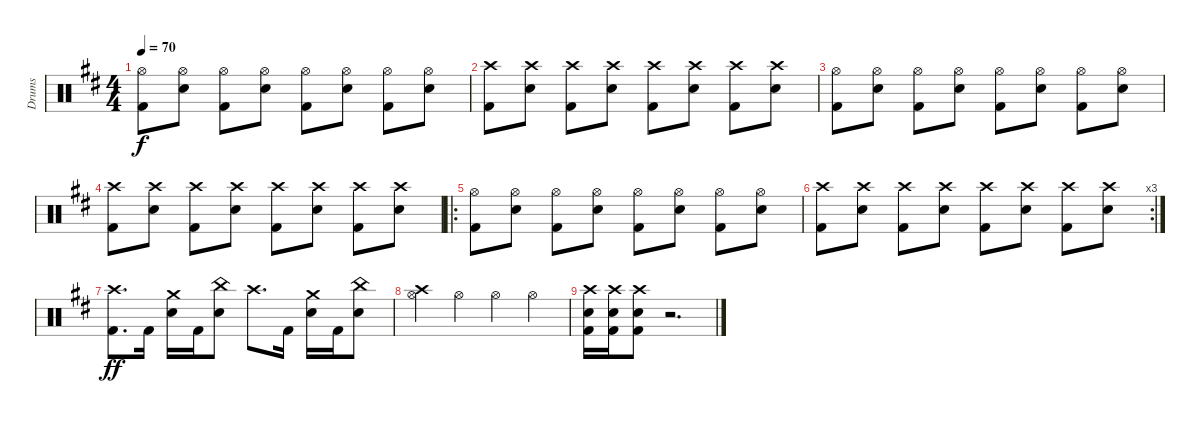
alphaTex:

\track ("Drums" "Drums") {instrument percussion}
\staff {score}
\articulation defaults
\ts (4 4)
\tempo 70
\clef neutral
\ks bminor
("Hi-Hat (open)" "Kick (hit) 2").8{dy f} ("Hi-Hat (open)" "Electric Snare (hit)").8 ("Hi-Hat (open)" "Kick (hit) 2").8 ("Hi-Hat (open)" "Electric Snare (hit)").8 ("Hi-Hat (open)" "Kick (hit) 2").8 ("Hi-Hat (open)" "Electric Snare (hit)").8 ("Hi-Hat (open)" "Kick (hit) 2").8 ("Hi-Hat (open)" "Electric Snare (hit)").8 |
("Crash high (hit)" "Kick (hit) 2").8 ("Crash high (hit)" "Electric Snare (hit)").8 ("Crash high (hit)" "Kick (hit) 2").8 ("Crash high (hit)" "Electric Snare (hit)").8 ("Crash high (hit)" "Kick (hit) 2").8 ("Crash high (hit)" "Electric Snare (hit)").8 ("Crash high (hit)" "Kick (hit) 2").8 ("Crash high (hit)" "Electric Snare (hit)").8 |
("Hi-Hat (open)" "Kick (hit) 2").8 ("Hi-Hat (open)" "Electric Snare (hit)").8 ("Hi-Hat (open)" "Kick (hit) 2").8 ("Hi-Hat (open)" "Electric Snare (hit)").8 ("Hi-Hat (open)" "Kick (hit) 2").8 ("Hi-Hat (open)" "Electric Snare (hit)").8 ("Hi-Hat (open)" "Kick (hit) 2").8 ("Hi-Hat (open)" "Electric Snare (hit)").8 |
("Crash high (hit)" "Kick (hit) 2").8 ("Crash high (hit)" "Electric Snare (hit)").8 ("Crash high (hit)" "Kick (hit) 2").8 ("Crash high (hit)" "Electric Snare (hit)").8 ("Crash high (hit)" "Kick (hit) 2").8 ("Crash high (hit)" "Electric Snare (hit)").8 ("Crash high (hit)" "Kick (hit) 2").8 ("Crash high (hit)" "Electric Snare (hit)").8 |
\ro
("Hi-Hat (open)" "Kick (hit) 2").8 ("Hi-Hat (open)" "Electric Snare (hit)").8 ("Hi-Hat (open)" "Kick (hit) 2").8 ("Hi-Hat (open)" "Electric Snare (hit)").8 ("Hi-Hat (open)" "Kick (hit) 2").8 ("Hi-Hat (open)" "Electric Snare (hit)").8 ("Hi-Hat (open)" "Kick (hit) 2").8 ("Hi-Hat (open)" "Electric Snare (hit)").8 |
\rc 3
("Crash high (hit)" "Kick (hit) 2").8 ("Crash high (hit)" "Electric Snare (hit)").8 ("Crash high (hit)" "Kick (hit) 2").8 ("Crash high (hit)" "Electric Snare (hit)").8 ("Crash high (hit)" "Kick (hit) 2").8 ("Crash high (hit)" "Electric Snare (hit)").8 ("Crash high (hit)" "Kick (hit) 2").8 ("Crash high (hit)" "Electric Snare (hit)").8 |
("Crash high (hit)" "Kick (hit) 2").8{d dy ff} "Kick (hit) 2".16 ("Crash medium (hit)" "Electric Snare (hit)").16 "Kick (hit) 2".16 ("China (hit)" "Electric Snare (hit)").8 "Crash high (hit)".8{d} "Kick (hit) 2".16 ("Crash medium (hit)" "Electric Snare (hit)").16 "Kick (hit) 2".16 ("China (hit)" "Electric Snare (hit)").8 |
("Hi-Hat (open)" "Crash high (hit)").4 "Hi-Hat (open)".4 "Hi-Hat (open)".4 "Hi-Hat (open)".4 |
("Crash high (hit)" "Kick (hit) 2" "Electric Snare (hit)").16 ("Crash high (hit)" "Kick (hit) 2" "Electric Snare (hit)").16 ("Crash high (hit)" "Kick (hit) 2" "Electric Snare (hit)").8 r.2{d}
